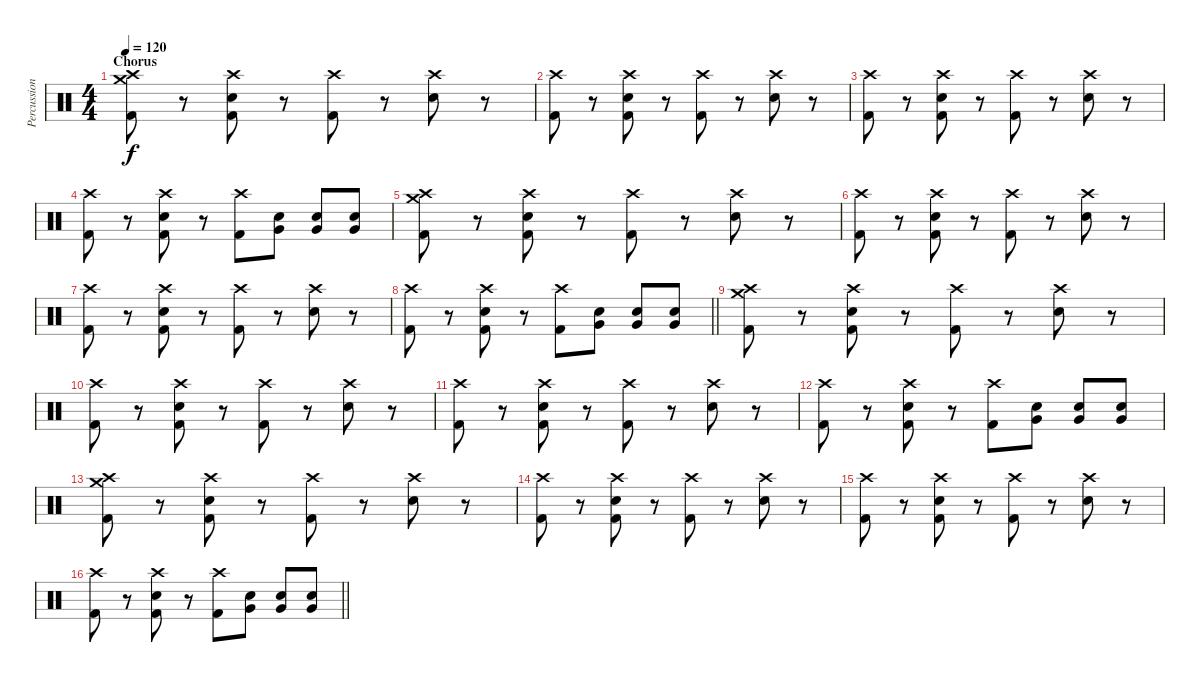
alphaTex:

\track ("Percussion" "Percussion") {instrument percussion}
\staff {score}
\articulation defaults
\ts (4 4)
\section ("" "Chorus")
\tempo 120
\clef neutral
\ks c
("Crash medium (hit)" "Crash high (hit)" "Kick (hit) 2").8{dy f} r.8 ("Crash high (hit)" "Snare (hit) 2" "Kick (hit) 2").8 r.8 ("Crash high (hit)" "Kick (hit) 2").8 r.8 ("Crash high (hit)" "Snare (hit) 2").8 r.8 |
("Crash high (hit)" "Kick (hit) 2").8 r.8 ("Crash high (hit)" "Snare (hit) 2" "Kick (hit) 2").8 r.8 ("Crash high (hit)" "Kick (hit) 2").8 r.8 ("Crash high (hit)" "Snare (hit) 2").8 r.8 |
("Crash high (hit)" "Kick (hit) 2").8 r.8 ("Crash high (hit)" "Snare (hit) 2" "Kick (hit) 2").8 r.8 ("Crash high (hit)" "Kick (hit) 2").8 r.8 ("Crash high (hit)" "Snare (hit) 2").8 r.8 |
("Crash high (hit)" "Kick (hit) 2").8 r.8 ("Crash high (hit)" "Snare (hit) 2" "Kick (hit) 2").8 r.8 ("Crash high (hit)" "Kick (hit) 2").8 ("Very Low Tom (hit)" "Snare (hit) 2").8 ("Very Low Tom (hit)" "Snare (hit) 2").8 ("Very Low Tom (hit)" "Snare (hit) 2").8 |
("Crash medium (hit)" "Crash high (hit)" "Kick (hit) 2").8 r.8 ("Crash high (hit)" "Snare (hit) 2" "Kick (hit) 2").8 r.8 ("Crash high (hit)" "Kick (hit) 2").8 r.8 ("Crash high (hit)" "Snare (hit) 2").8 r.8 |
("Crash high (hit)" "Kick (hit) 2").8 r.8 ("Crash high (hit)" "Snare (hit) 2" "Kick (hit) 2").8 r.8 ("Crash high (hit)" "Kick (hit) 2").8 r.8 ("Crash high (hit)" "Snare (hit) 2").8 r.8 |
("Crash high (hit)" "Kick (hit) 2").8 r.8 ("Crash high (hit)" "Snare (hit) 2" "Kick (hit) 2").8 r.8 ("Crash high (hit)" "Kick (hit) 2").8 r.8 ("Crash high (hit)" "Snare (hit) 2").8 r.8 |
\barLineRight lightlight
("Crash high (hit)" "Kick (hit) 2").8 r.8 ("Crash high (hit)" "Snare (hit) 2" "Kick (hit) 2").8 r.8 ("Crash high (hit)" "Kick (hit) 2").8 ("Very Low Tom (hit)" "Snare (hit) 2").8 ("Very Low Tom (hit)" "Snare (hit) 2").8 ("Very Low Tom (hit)" "Snare (hit) 2").8 |
("Crash medium (hit)" "Crash high (hit)" "Kick (hit) 2").8 r.8 ("Crash high (hit)" "Snare (hit) 2" "Kick (hit) 2").8 r.8 ("Crash high (hit)" "Kick (hit) 2").8 r.8 ("Crash high (hit)" "Snare (hit) 2").8 r.8 |
("Crash high (hit)" "Kick (hit) 2").8 r.8 ("Crash high (hit)" "Snare (hit) 2" "Kick (hit) 2").8 r.8 ("Crash high (hit)" "Kick (hit) 2").8 r.8 ("Crash high (hit)" "Snare (hit) 2").8 r.8 |
("Crash high (hit)" "Kick (hit) 2").8 r.8 ("Crash high (hit)" "Snare (hit) 2" "Kick (hit) 2").8 r.8 ("Crash high (hit)" "Kick (hit) 2").8 r.8 ("Crash high (hit)" "Snare (hit) 2").8 r.8 |
("Crash high (hit)" "Kick (hit) 2").8 r.8 ("Crash high (hit)" "Snare (hit) 2" "Kick (hit) 2").8 r.8 ("Crash high (hit)" "Kick (hit) 2").8 ("Very Low Tom (hit)" "Snare (hit) 2").8 ("Very Low Tom (hit)" "Snare (hit) 2").8 ("Very Low Tom (hit)" "Snare (hit) 2").8 |
("Crash medium (hit)" "Crash high (hit)" "Kick (hit) 2").8 r.8 ("Crash high (hit)" "Snare (hit) 2" "Kick (hit) 2").8 r.8 ("Crash high (hit)" "Kick (hit) 2").8 r.8 ("Crash high (hit)" "Snare (hit) 2").8 r.8 |
("Crash high (hit)" "Kick (hit) 2").8 r.8 ("Crash high (hit)" "Snare (hit) 2" "Kick (hit) 2").8 r.8 ("Crash high (hit)" "Kick (hit) 2").8 r.8 ("Crash high (hit)" "Snare (hit) 2").8 r.8 |
("Crash high (hit)" "Kick (hit) 2").8 r.8 ("Crash high (hit)" "Snare (hit) 2" "Kick (hit) 2").8 r.8 ("Crash high (hit)" "Kick (hit) 2").8 r.8 ("Crash high (hit)" "Snare (hit) 2").8 r.8 |
\barLineRight lightlight
("Crash high (hit)" "Kick (hit) 2").8 r.8 ("Crash high (hit)" "Snare (hit) 2" "Kick (hit) 2").8 r.8 ("Crash high (hit)" "Kick (hit) 2").8 ("Very Low Tom (hit)" "Snare (hit) 2").8 ("Very Low Tom (hit)" "Snare (hit) 2").8 ("Very Low Tom (hit)" "Snare (hit) 2").8
